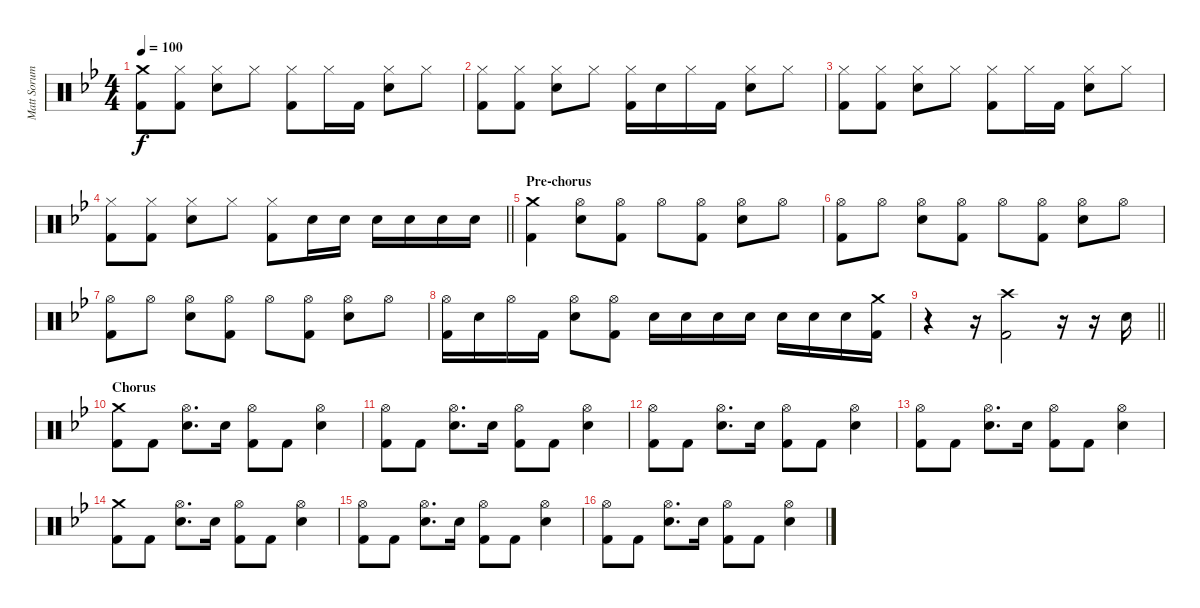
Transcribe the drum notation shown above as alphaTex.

\track ("Matt Sorum" "Matt Sorum") {instrument percussion}
\staff {score}
\articulation defaults
\ts (4 4)
\tempo 100
\clef neutral
\ks bb
("Crash medium (hit)" "Kick (hit) 2").8{dy f} ("Hi-Hat (closed)" "Kick (hit) 2").8 ("Hi-Hat (closed)" "Electric Snare (hit)").8 "Hi-Hat (closed)".8 ("Hi-Hat (closed)" "Kick (hit) 2").8 "Hi-Hat (closed)".16 "Kick (hit) 2".16 ("Hi-Hat (closed)" "Electric Snare (hit)").8 "Hi-Hat (closed)".8 |
("Hi-Hat (closed)" "Kick (hit) 2").8 ("Hi-Hat (closed)" "Kick (hit) 2").8 ("Hi-Hat (closed)" "Electric Snare (hit)").8 "Hi-Hat (closed)".8 ("Hi-Hat (closed)" "Kick (hit) 2").16 "Electric Snare (hit)".16 "Hi-Hat (closed)".16 "Kick (hit) 2".16 ("Hi-Hat (closed)" "Electric Snare (hit)").8 "Hi-Hat (closed)".8 |
("Hi-Hat (closed)" "Kick (hit) 2").8 ("Hi-Hat (closed)" "Kick (hit) 2").8 ("Hi-Hat (closed)" "Electric Snare (hit)").8 "Hi-Hat (closed)".8 ("Hi-Hat (closed)" "Kick (hit) 2").8 "Hi-Hat (closed)".16 "Kick (hit) 2".16 ("Hi-Hat (closed)" "Electric Snare (hit)").8 "Hi-Hat (closed)".8 |
\barLineRight lightlight
("Hi-Hat (closed)" "Kick (hit) 2").8 ("Hi-Hat (closed)" "Kick (hit) 2").8 ("Hi-Hat (closed)" "Electric Snare (hit)").8 "Hi-Hat (closed)".8 ("Hi-Hat (closed)" "Kick (hit) 2").8 "Electric Snare (hit)".16 "Electric Snare (hit)".16 "Electric Snare (hit)".16 "Electric Snare (hit)".16 "Electric Snare (hit)".16 "Electric Snare (hit)".16 |
\section ("" "Pre-chorus")
("Crash medium (hit)" "Kick (hit) 2").4 ("Hi-Hat (open)" "Electric Snare (hit)").8 ("Hi-Hat (open)" "Kick (hit) 2").8 "Hi-Hat (open)".8 ("Hi-Hat (open)" "Kick (hit) 2").8 ("Hi-Hat (open)" "Electric Snare (hit)").8 "Hi-Hat (open)".8 |
("Hi-Hat (open)" "Kick (hit) 2").8 "Hi-Hat (open)".8 ("Hi-Hat (open)" "Electric Snare (hit)").8 ("Hi-Hat (open)" "Kick (hit) 2").8 "Hi-Hat (open)".8 ("Hi-Hat (open)" "Kick (hit) 2").8 ("Hi-Hat (open)" "Electric Snare (hit)").8 "Hi-Hat (open)".8 |
("Hi-Hat (open)" "Kick (hit) 2").8 "Hi-Hat (open)".8 ("Hi-Hat (open)" "Electric Snare (hit)").8 ("Hi-Hat (open)" "Kick (hit) 2").8 "Hi-Hat (open)".8 ("Hi-Hat (open)" "Kick (hit) 2").8 ("Hi-Hat (open)" "Electric Snare (hit)").8 "Hi-Hat (open)".8 |
("Hi-Hat (open)" "Kick (hit) 2").16 "Electric Snare (hit)".16 "Hi-Hat (open)".16 "Kick (hit) 2".16 ("Hi-Hat (open)" "Electric Snare (hit)").8 ("Hi-Hat (open)" "Kick (hit) 2").8 "Electric Snare (hit)".16 "Electric Snare (hit)".16 "Electric Snare (hit)".16 "Electric Snare (hit)".16 "Electric Snare (hit)".16 "Electric Snare (hit)".16 "Electric Snare (hit)".16 ("Crash medium (hit)" "Kick (hit) 2").16 |
\barLineRight lightlight
r.4 r.16 ("Crash high (hit)" "Kick (hit) 2").2 r.16 r.16 "Electric Snare (hit)".16 |
\section ("" "Chorus")
("Crash medium (hit)" "Kick (hit) 2").8 "Kick (hit) 2".8 ("Hi-Hat (open)" "Electric Snare (hit)").8{d} "Electric Snare (hit)".16 ("Hi-Hat (open)" "Kick (hit) 2").8 "Kick (hit) 2".8 ("Hi-Hat (open)" "Electric Snare (hit)").4 |
("Hi-Hat (open)" "Kick (hit) 2").8 "Kick (hit) 2".8 ("Hi-Hat (open)" "Electric Snare (hit)").8{d} "Electric Snare (hit)".16 ("Hi-Hat (open)" "Kick (hit) 2").8 "Kick (hit) 2".8 ("Hi-Hat (open)" "Electric Snare (hit)").4 |
("Hi-Hat (open)" "Kick (hit) 2").8 "Kick (hit) 2".8 ("Hi-Hat (open)" "Electric Snare (hit)").8{d} "Electric Snare (hit)".16 ("Hi-Hat (open)" "Kick (hit) 2").8 "Kick (hit) 2".8 ("Hi-Hat (open)" "Electric Snare (hit)").4 |
("Hi-Hat (open)" "Kick (hit) 2").8 "Kick (hit) 2".8 ("Hi-Hat (open)" "Electric Snare (hit)").8{d} "Electric Snare (hit)".16 ("Hi-Hat (open)" "Kick (hit) 2").8 "Kick (hit) 2".8 ("Hi-Hat (open)" "Electric Snare (hit)").4 |
("Crash medium (hit)" "Kick (hit) 2").8 "Kick (hit) 2".8 ("Hi-Hat (open)" "Electric Snare (hit)").8{d} "Electric Snare (hit)".16 ("Hi-Hat (open)" "Kick (hit) 2").8 "Kick (hit) 2".8 ("Hi-Hat (open)" "Electric Snare (hit)").4 |
("Hi-Hat (open)" "Kick (hit) 2").8 "Kick (hit) 2".8 ("Hi-Hat (open)" "Electric Snare (hit)").8{d} "Electric Snare (hit)".16 ("Hi-Hat (open)" "Kick (hit) 2").8 "Kick (hit) 2".8 ("Hi-Hat (open)" "Electric Snare (hit)").4 |
("Hi-Hat (open)" "Kick (hit) 2").8 "Kick (hit) 2".8 ("Hi-Hat (open)" "Electric Snare (hit)").8{d} "Electric Snare (hit)".16 ("Hi-Hat (open)" "Kick (hit) 2").8 "Kick (hit) 2".8 ("Hi-Hat (open)" "Electric Snare (hit)").4
